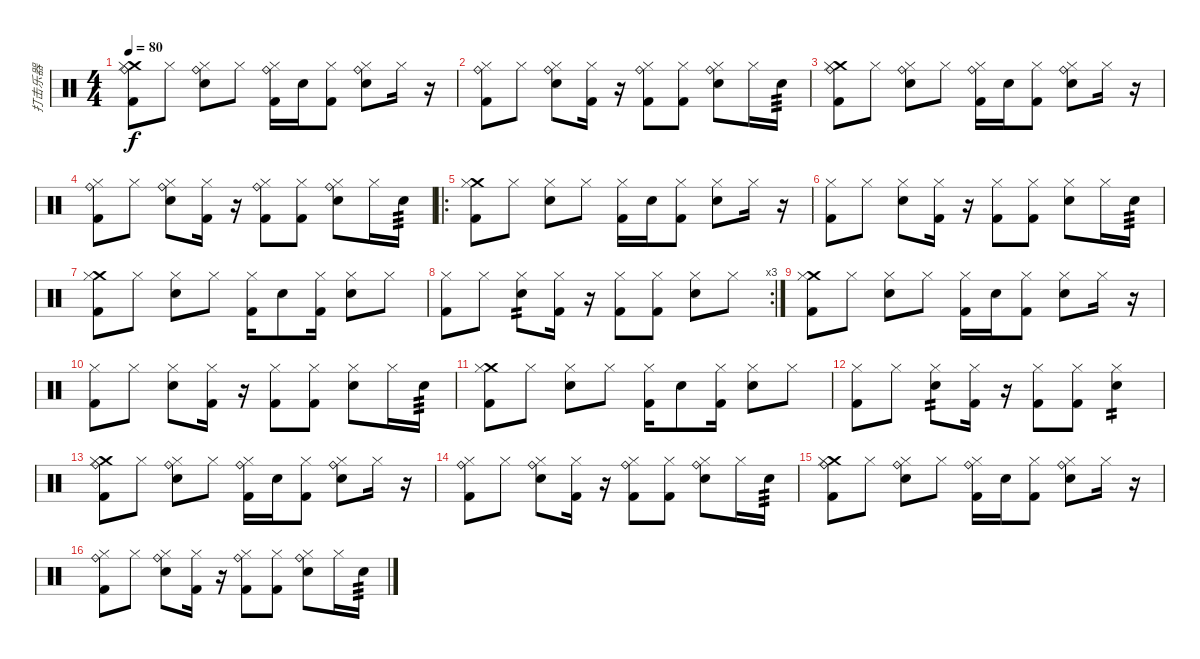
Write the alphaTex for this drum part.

\track ("打击乐器" "打击乐器") {instrument percussion}
\staff {score}
\articulation defaults
\ts (4 4)
\tempo 80
\clef neutral
\ks c
("Crash medium (hit)" "Ride (bell)" "Hi-Hat (closed)" "Kick (hit) 2").8{dy f} "Hi-Hat (closed)".8 ("Ride (bell)" "Hi-Hat (closed)" "Electric Snare (hit)").8 "Hi-Hat (closed)".8 ("Ride (bell)" "Hi-Hat (closed)" "Kick (hit) 2").16 "Electric Snare (hit)".16 ("Hi-Hat (closed)" "Kick (hit) 2").8 ("Ride (bell)" "Hi-Hat (closed)" "Electric Snare (hit)").8 "Hi-Hat (closed)".16 r.16 |
("Ride (bell)" "Hi-Hat (closed)" "Kick (hit) 2").8 "Hi-Hat (closed)".8 ("Ride (bell)" "Hi-Hat (closed)" "Electric Snare (hit)").8 ("Hi-Hat (closed)" "Kick (hit) 2").16 r.16 ("Ride (bell)" "Hi-Hat (closed)" "Kick (hit) 2").8 ("Hi-Hat (closed)" "Kick (hit) 2").8 ("Ride (bell)" "Hi-Hat (closed)" "Electric Snare (hit)").8 "Hi-Hat (closed)".16 "Electric Snare (hit)".16{tp 3} |
("Crash medium (hit)" "Ride (bell)" "Hi-Hat (closed)" "Kick (hit) 2").8 "Hi-Hat (closed)".8 ("Ride (bell)" "Hi-Hat (closed)" "Electric Snare (hit)").8 "Hi-Hat (closed)".8 ("Ride (bell)" "Hi-Hat (closed)" "Kick (hit) 2").16 "Electric Snare (hit)".16 ("Hi-Hat (closed)" "Kick (hit) 2").8 ("Ride (bell)" "Hi-Hat (closed)" "Electric Snare (hit)").8 "Hi-Hat (closed)".16 r.16 |
("Ride (bell)" "Hi-Hat (closed)" "Kick (hit) 2").8 "Hi-Hat (closed)".8 ("Ride (bell)" "Hi-Hat (closed)" "Electric Snare (hit)").8 ("Hi-Hat (closed)" "Kick (hit) 2").16 r.16 ("Ride (bell)" "Hi-Hat (closed)" "Kick (hit) 2").8 ("Hi-Hat (closed)" "Kick (hit) 2").8 ("Ride (bell)" "Hi-Hat (closed)" "Electric Snare (hit)").8 "Hi-Hat (closed)".16 "Electric Snare (hit)".16{tp 3} |
\ro
("Crash medium (hit)" "Hi-Hat (closed)" "Kick (hit) 2").8 "Hi-Hat (closed)".8 ("Hi-Hat (closed)" "Electric Snare (hit)").8 "Hi-Hat (closed)".8 ("Hi-Hat (closed)" "Kick (hit) 2").16 "Electric Snare (hit)".16 ("Hi-Hat (closed)" "Kick (hit) 2").8 ("Hi-Hat (closed)" "Electric Snare (hit)").8 "Hi-Hat (closed)".16 r.16 |
("Hi-Hat (closed)" "Kick (hit) 2").8 "Hi-Hat (closed)".8 ("Hi-Hat (closed)" "Electric Snare (hit)").8 ("Hi-Hat (closed)" "Kick (hit) 2").16 r.16 ("Hi-Hat (closed)" "Kick (hit) 2").8 ("Hi-Hat (closed)" "Kick (hit) 2").8 ("Hi-Hat (closed)" "Electric Snare (hit)").8 "Hi-Hat (closed)".16 "Electric Snare (hit)".16{tp 3} |
("Crash medium (hit)" "Hi-Hat (closed)" "Kick (hit) 2").8 "Hi-Hat (closed)".8 ("Hi-Hat (closed)" "Electric Snare (hit)").8 "Hi-Hat (closed)".8 ("Hi-Hat (closed)" "Kick (hit) 2").16 "Electric Snare (hit)".8 ("Hi-Hat (closed)" "Kick (hit) 2").16 ("Hi-Hat (closed)" "Electric Snare (hit)").8 "Hi-Hat (closed)".8 |
\rc 3
("Hi-Hat (closed)" "Kick (hit) 2").8 "Hi-Hat (closed)".8 ("Hi-Hat (closed)" "Electric Snare (hit)").8{tp 2} ("Hi-Hat (closed)" "Kick (hit) 2").16 r.16 ("Hi-Hat (closed)" "Kick (hit) 2").8 ("Hi-Hat (closed)" "Kick (hit) 2").8 ("Hi-Hat (closed)" "Electric Snare (hit)").8 "Hi-Hat (closed)".8 |
("Crash medium (hit)" "Hi-Hat (closed)" "Kick (hit) 2").8 "Hi-Hat (closed)".8 ("Hi-Hat (closed)" "Electric Snare (hit)").8 "Hi-Hat (closed)".8 ("Hi-Hat (closed)" "Kick (hit) 2").16 "Electric Snare (hit)".16 ("Hi-Hat (closed)" "Kick (hit) 2").8 ("Hi-Hat (closed)" "Electric Snare (hit)").8 "Hi-Hat (closed)".16 r.16 |
("Hi-Hat (closed)" "Kick (hit) 2").8 "Hi-Hat (closed)".8 ("Hi-Hat (closed)" "Electric Snare (hit)").8 ("Hi-Hat (closed)" "Kick (hit) 2").16 r.16 ("Hi-Hat (closed)" "Kick (hit) 2").8 ("Hi-Hat (closed)" "Kick (hit) 2").8 ("Hi-Hat (closed)" "Electric Snare (hit)").8 "Hi-Hat (closed)".16 "Electric Snare (hit)".16{tp 3} |
("Crash medium (hit)" "Hi-Hat (closed)" "Kick (hit) 2").8 "Hi-Hat (closed)".8 ("Hi-Hat (closed)" "Electric Snare (hit)").8 "Hi-Hat (closed)".8 ("Hi-Hat (closed)" "Kick (hit) 2").16 "Electric Snare (hit)".8 ("Hi-Hat (closed)" "Kick (hit) 2").16 ("Hi-Hat (closed)" "Electric Snare (hit)").8 "Hi-Hat (closed)".8 |
("Hi-Hat (closed)" "Kick (hit) 2").8 "Hi-Hat (closed)".8 ("Hi-Hat (closed)" "Electric Snare (hit)").8{tp 2} ("Hi-Hat (closed)" "Kick (hit) 2").16 r.16 ("Hi-Hat (closed)" "Kick (hit) 2").8 ("Hi-Hat (closed)" "Kick (hit) 2").8 ("Hi-Hat (closed)" "Electric Snare (hit)").4{tp 2} |
("Crash medium (hit)" "Ride (bell)" "Hi-Hat (closed)" "Kick (hit) 2").8 "Hi-Hat (closed)".8 ("Ride (bell)" "Hi-Hat (closed)" "Electric Snare (hit)").8 "Hi-Hat (closed)".8 ("Ride (bell)" "Hi-Hat (closed)" "Kick (hit) 2").16 "Electric Snare (hit)".16 ("Hi-Hat (closed)" "Kick (hit) 2").8 ("Ride (bell)" "Hi-Hat (closed)" "Electric Snare (hit)").8 "Hi-Hat (closed)".16 r.16 |
("Ride (bell)" "Hi-Hat (closed)" "Kick (hit) 2").8 "Hi-Hat (closed)".8 ("Ride (bell)" "Hi-Hat (closed)" "Electric Snare (hit)").8 ("Hi-Hat (closed)" "Kick (hit) 2").16 r.16 ("Ride (bell)" "Hi-Hat (closed)" "Kick (hit) 2").8 ("Hi-Hat (closed)" "Kick (hit) 2").8 ("Ride (bell)" "Hi-Hat (closed)" "Electric Snare (hit)").8 "Hi-Hat (closed)".16 "Electric Snare (hit)".16{tp 3} |
("Crash medium (hit)" "Ride (bell)" "Hi-Hat (closed)" "Kick (hit) 2").8 "Hi-Hat (closed)".8 ("Ride (bell)" "Hi-Hat (closed)" "Electric Snare (hit)").8 "Hi-Hat (closed)".8 ("Ride (bell)" "Hi-Hat (closed)" "Kick (hit) 2").16 "Electric Snare (hit)".16 ("Hi-Hat (closed)" "Kick (hit) 2").8 ("Ride (bell)" "Hi-Hat (closed)" "Electric Snare (hit)").8 "Hi-Hat (closed)".16 r.16 |
("Ride (bell)" "Hi-Hat (closed)" "Kick (hit) 2").8 "Hi-Hat (closed)".8 ("Ride (bell)" "Hi-Hat (closed)" "Electric Snare (hit)").8 ("Hi-Hat (closed)" "Kick (hit) 2").16 r.16 ("Ride (bell)" "Hi-Hat (closed)" "Kick (hit) 2").8 ("Hi-Hat (closed)" "Kick (hit) 2").8 ("Ride (bell)" "Hi-Hat (closed)" "Electric Snare (hit)").8 "Hi-Hat (closed)".16 "Electric Snare (hit)".16{tp 3}
